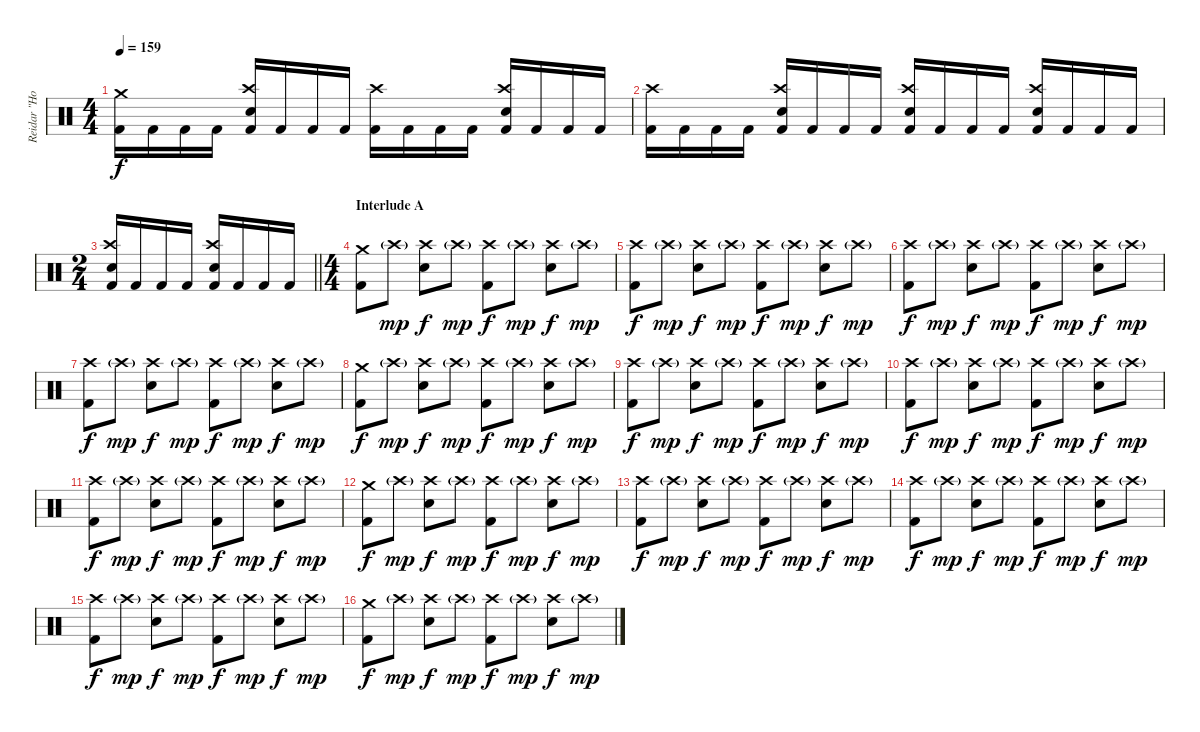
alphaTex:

\track ("Reidar \"Horgh\" Horghagen " "Reidar \"Ho") {instrument percussion}
\staff {score}
\articulation defaults
\ts (4 4)
\tempo 159
\clef neutral
\ks c
("Crash medium (hit)" "Kick (hit) 2").16{dy f} "Kick (hit) 2".16 "Kick (hit) 2".16 "Kick (hit) 2".16 ("Crash high (hit)" "Snare (hit) 2" "Kick (hit) 2").16 "Kick (hit) 2".16 "Kick (hit) 2".16 "Kick (hit) 2".16 ("Crash high (hit)" "Kick (hit) 2").16 "Kick (hit) 2".16 "Kick (hit) 2".16 "Kick (hit) 2".16 ("Crash high (hit)" "Snare (hit) 2" "Kick (hit) 2").16 "Kick (hit) 2".16 "Kick (hit) 2".16 "Kick (hit) 2".16 |
("Crash high (hit)" "Kick (hit) 2").16 "Kick (hit) 2".16 "Kick (hit) 2".16 "Kick (hit) 2".16 ("Crash high (hit)" "Snare (hit) 2" "Kick (hit) 2").16 "Kick (hit) 2".16 "Kick (hit) 2".16 "Kick (hit) 2".16 ("Crash high (hit)" "Snare (hit) 2" "Kick (hit) 2").16 "Kick (hit) 2".16 "Kick (hit) 2".16 "Kick (hit) 2".16 ("Crash high (hit)" "Snare (hit) 2" "Kick (hit) 2").16 "Kick (hit) 2".16 "Kick (hit) 2".16 "Kick (hit) 2".16 |
\ts (2 4)
\barLineRight lightlight
("Crash high (hit)" "Snare (hit) 2" "Kick (hit) 2").16 "Kick (hit) 2".16 "Kick (hit) 2".16 "Kick (hit) 2".16 ("Crash high (hit)" "Snare (hit) 2" "Kick (hit) 2").16 "Kick (hit) 2".16 "Kick (hit) 2".16 "Kick (hit) 2".16 |
\ts (4 4)
\section ("" "Interlude A")
("Crash medium (hit)" "Kick (hit) 2").8 "Crash high (hit)"{g}.8{dy mp} ("Crash high (hit)" "Snare (hit) 2").8{dy f} "Crash high (hit)"{g}.8{dy mp} ("Crash high (hit)" "Kick (hit) 2").8{dy f} "Crash high (hit)"{g}.8{dy mp} ("Crash high (hit)" "Snare (hit) 2").8{dy f} "Crash high (hit)"{g}.8{dy mp} |
("Crash high (hit)" "Kick (hit) 2").8{dy f} "Crash high (hit)"{g}.8{dy mp} ("Crash high (hit)" "Snare (hit) 2").8{dy f} "Crash high (hit)"{g}.8{dy mp} ("Crash high (hit)" "Kick (hit) 2").8{dy f} "Crash high (hit)"{g}.8{dy mp} ("Crash high (hit)" "Snare (hit) 2").8{dy f} "Crash high (hit)"{g}.8{dy mp} |
("Crash high (hit)" "Kick (hit) 2").8{dy f} "Crash high (hit)"{g}.8{dy mp} ("Crash high (hit)" "Snare (hit) 2").8{dy f} "Crash high (hit)"{g}.8{dy mp} ("Crash high (hit)" "Kick (hit) 2").8{dy f} "Crash high (hit)"{g}.8{dy mp} ("Crash high (hit)" "Snare (hit) 2").8{dy f} "Crash high (hit)"{g}.8{dy mp} |
("Crash high (hit)" "Kick (hit) 2").8{dy f} "Crash high (hit)"{g}.8{dy mp} ("Crash high (hit)" "Snare (hit) 2").8{dy f} "Crash high (hit)"{g}.8{dy mp} ("Crash high (hit)" "Kick (hit) 2").8{dy f} "Crash high (hit)"{g}.8{dy mp} ("Crash high (hit)" "Snare (hit) 2").8{dy f} "Crash high (hit)"{g}.8{dy mp} |
("Crash medium (hit)" "Kick (hit) 2").8{dy f} "Crash high (hit)"{g}.8{dy mp} ("Crash high (hit)" "Snare (hit) 2").8{dy f} "Crash high (hit)"{g}.8{dy mp} ("Crash high (hit)" "Kick (hit) 2").8{dy f} "Crash high (hit)"{g}.8{dy mp} ("Crash high (hit)" "Snare (hit) 2").8{dy f} "Crash high (hit)"{g}.8{dy mp} |
("Crash high (hit)" "Kick (hit) 2").8{dy f} "Crash high (hit)"{g}.8{dy mp} ("Crash high (hit)" "Snare (hit) 2").8{dy f} "Crash high (hit)"{g}.8{dy mp} ("Crash high (hit)" "Kick (hit) 2").8{dy f} "Crash high (hit)"{g}.8{dy mp} ("Crash high (hit)" "Snare (hit) 2").8{dy f} "Crash high (hit)"{g}.8{dy mp} |
("Crash high (hit)" "Kick (hit) 2").8{dy f} "Crash high (hit)"{g}.8{dy mp} ("Crash high (hit)" "Snare (hit) 2").8{dy f} "Crash high (hit)"{g}.8{dy mp} ("Crash high (hit)" "Kick (hit) 2").8{dy f} "Crash high (hit)"{g}.8{dy mp} ("Crash high (hit)" "Snare (hit) 2").8{dy f} "Crash high (hit)"{g}.8{dy mp} |
("Crash high (hit)" "Kick (hit) 2").8{dy f} "Crash high (hit)"{g}.8{dy mp} ("Crash high (hit)" "Snare (hit) 2").8{dy f} "Crash high (hit)"{g}.8{dy mp} ("Crash high (hit)" "Kick (hit) 2").8{dy f} "Crash high (hit)"{g}.8{dy mp} ("Crash high (hit)" "Snare (hit) 2").8{dy f} "Crash high (hit)"{g}.8{dy mp} |
("Crash medium (hit)" "Kick (hit) 2").8{dy f} "Crash high (hit)"{g}.8{dy mp} ("Crash high (hit)" "Snare (hit) 2").8{dy f} "Crash high (hit)"{g}.8{dy mp} ("Crash high (hit)" "Kick (hit) 2").8{dy f} "Crash high (hit)"{g}.8{dy mp} ("Crash high (hit)" "Snare (hit) 2").8{dy f} "Crash high (hit)"{g}.8{dy mp} |
("Crash high (hit)" "Kick (hit) 2").8{dy f} "Crash high (hit)"{g}.8{dy mp} ("Crash high (hit)" "Snare (hit) 2").8{dy f} "Crash high (hit)"{g}.8{dy mp} ("Crash high (hit)" "Kick (hit) 2").8{dy f} "Crash high (hit)"{g}.8{dy mp} ("Crash high (hit)" "Snare (hit) 2").8{dy f} "Crash high (hit)"{g}.8{dy mp} |
("Crash high (hit)" "Kick (hit) 2").8{dy f} "Crash high (hit)"{g}.8{dy mp} ("Crash high (hit)" "Snare (hit) 2").8{dy f} "Crash high (hit)"{g}.8{dy mp} ("Crash high (hit)" "Kick (hit) 2").8{dy f} "Crash high (hit)"{g}.8{dy mp} ("Crash high (hit)" "Snare (hit) 2").8{dy f} "Crash high (hit)"{g}.8{dy mp} |
("Crash high (hit)" "Kick (hit) 2").8{dy f} "Crash high (hit)"{g}.8{dy mp} ("Crash high (hit)" "Snare (hit) 2").8{dy f} "Crash high (hit)"{g}.8{dy mp} ("Crash high (hit)" "Kick (hit) 2").8{dy f} "Crash high (hit)"{g}.8{dy mp} ("Crash high (hit)" "Snare (hit) 2").8{dy f} "Crash high (hit)"{g}.8{dy mp} |
("Crash medium (hit)" "Kick (hit) 2").8{dy f} "Crash high (hit)"{g}.8{dy mp} ("Crash high (hit)" "Snare (hit) 2").8{dy f} "Crash high (hit)"{g}.8{dy mp} ("Crash high (hit)" "Kick (hit) 2").8{dy f} "Crash high (hit)"{g}.8{dy mp} ("Crash high (hit)" "Snare (hit) 2").8{dy f} "Crash high (hit)"{g}.8{dy mp}
